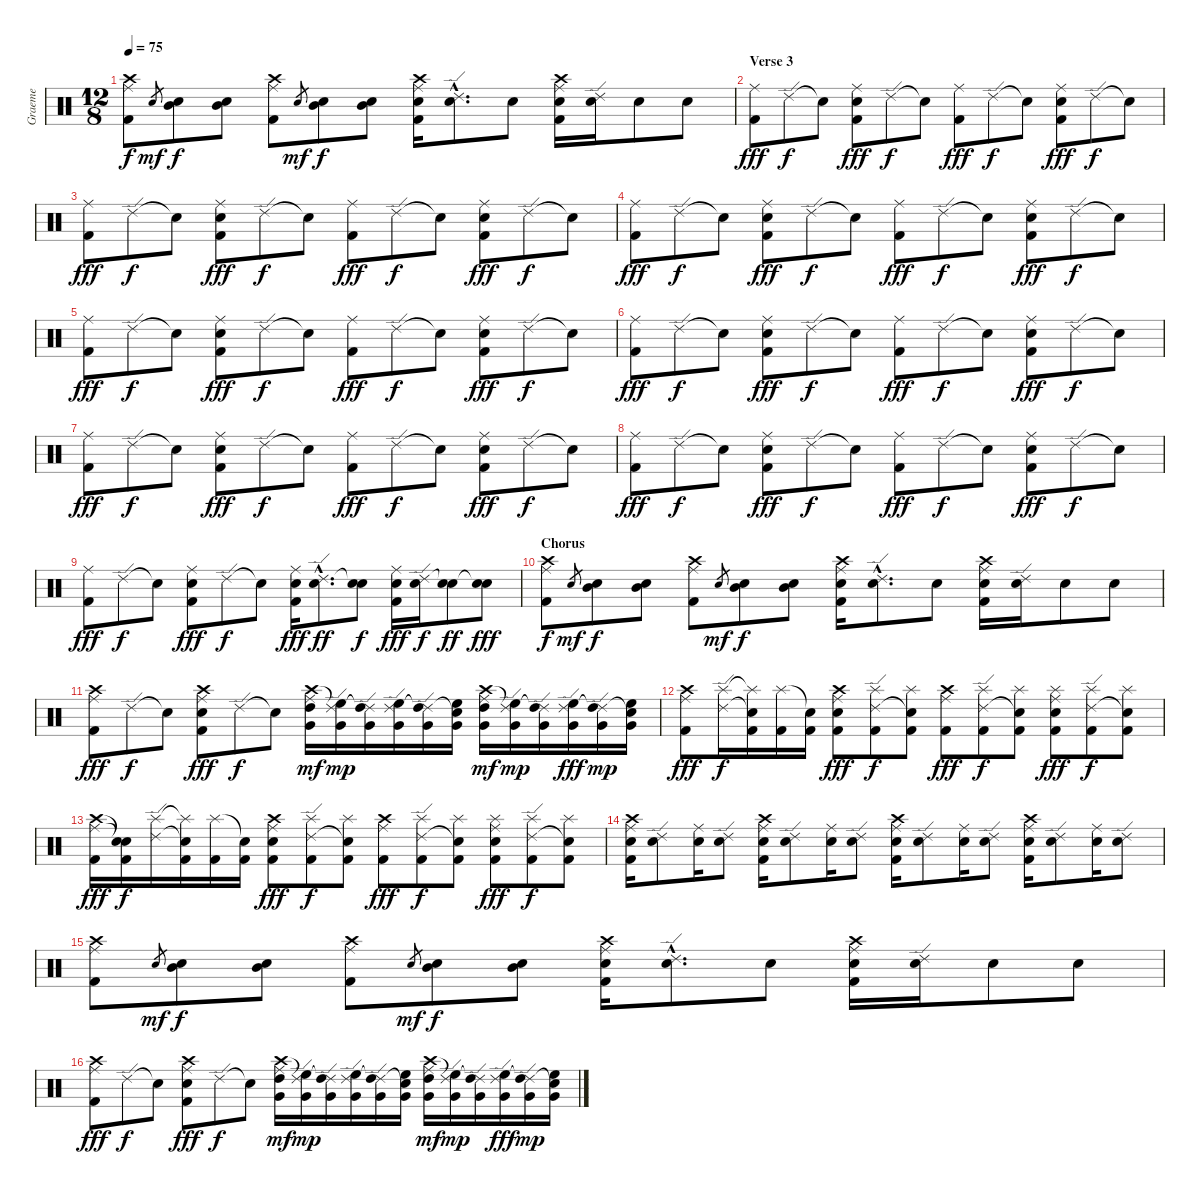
\track ("Graeme" "Graeme") {instrument percussion}
\staff {score}
\articulation defaults
\ts (12 8)
\tempo 75
\clef neutral
\ks c
("Crash high (hit)" "Ride (middle)" "Kick (hit) 2").8{dy f} "Electric Snare (hit)".8{gr dy mf} ("Mid Tom (hit)" "Electric Snare (hit)").8{dy f} ("Mid Tom (hit)" "Electric Snare (hit)").8 ("Crash high (hit)" "Ride (middle)" "Kick (hit) 2").8 "Electric Snare (hit)".8{gr dy mf} ("Mid Tom (hit)" "Electric Snare (hit)").8{dy f} ("Mid Tom (hit)" "Electric Snare (hit)").8 ("Crash high (hit)" "Ride (middle)" "Electric Snare (hit)" "Kick (hit) 2").16 ("Ride (edge) 2"{hac} "Electric Snare (hit)"{hac}).8{d} "Electric Snare (hit)".8 ("Crash high (hit)" "Ride (middle)" "Electric Snare (hit)" "Kick (hit) 2").16 ("Ride (edge) 2" "Electric Snare (hit)").16 "Electric Snare (hit)".8 "Electric Snare (hit)".8 |
\section ("" "Verse 3")
("Ride (middle)" "Kick (hit) 2").8{dy fff} "Ride (edge) 2".8{dy f} "Snare (hit)"{t}.8 ("Ride (middle)" "Electric Snare (hit)" "Kick (hit) 2").8{dy fff} "Ride (edge) 2".8{dy f} "Snare (hit)"{t}.8 ("Ride (middle)" "Kick (hit) 2").8{dy fff} "Ride (edge) 2".8{dy f} "Snare (hit)"{t}.8 ("Ride (middle)" "Electric Snare (hit)" "Kick (hit) 2").8{dy fff} "Ride (edge) 2".8{dy f} "Snare (hit)"{t}.8 |
("Ride (middle)" "Kick (hit) 2").8{dy fff} "Ride (edge) 2".8{dy f} "Snare (hit)"{t}.8 ("Ride (middle)" "Electric Snare (hit)" "Kick (hit) 2").8{dy fff} "Ride (edge) 2".8{dy f} "Snare (hit)"{t}.8 ("Ride (middle)" "Kick (hit) 2").8{dy fff} "Ride (edge) 2".8{dy f} "Snare (hit)"{t}.8 ("Ride (middle)" "Electric Snare (hit)" "Kick (hit) 2").8{dy fff} "Ride (edge) 2".8{dy f} "Snare (hit)"{t}.8 |
("Ride (middle)" "Kick (hit) 2").8{dy fff} "Ride (edge) 2".8{dy f} "Snare (hit)"{t}.8 ("Ride (middle)" "Electric Snare (hit)" "Kick (hit) 2").8{dy fff} "Ride (edge) 2".8{dy f} "Snare (hit)"{t}.8 ("Ride (middle)" "Kick (hit) 2").8{dy fff} "Ride (edge) 2".8{dy f} "Snare (hit)"{t}.8 ("Ride (middle)" "Electric Snare (hit)" "Kick (hit) 2").8{dy fff} "Ride (edge) 2".8{dy f} "Snare (hit)"{t}.8 |
("Ride (middle)" "Kick (hit) 2").8{dy fff} "Ride (edge) 2".8{dy f} "Snare (hit)"{t}.8 ("Ride (middle)" "Electric Snare (hit)" "Kick (hit) 2").8{dy fff} "Ride (edge) 2".8{dy f} "Snare (hit)"{t}.8 ("Ride (middle)" "Kick (hit) 2").8{dy fff} "Ride (edge) 2".8{dy f} "Snare (hit)"{t}.8 ("Ride (middle)" "Electric Snare (hit)" "Kick (hit) 2").8{dy fff} "Ride (edge) 2".8{dy f} "Snare (hit)"{t}.8 |
("Ride (middle)" "Kick (hit) 2").8{dy fff} "Ride (edge) 2".8{dy f} "Snare (hit)"{t}.8 ("Ride (middle)" "Electric Snare (hit)" "Kick (hit) 2").8{dy fff} "Ride (edge) 2".8{dy f} "Snare (hit)"{t}.8 ("Ride (middle)" "Kick (hit) 2").8{dy fff} "Ride (edge) 2".8{dy f} "Snare (hit)"{t}.8 ("Ride (middle)" "Electric Snare (hit)" "Kick (hit) 2").8{dy fff} "Ride (edge) 2".8{dy f} "Snare (hit)"{t}.8 |
("Ride (middle)" "Kick (hit) 2").8{dy fff} "Ride (edge) 2".8{dy f} "Snare (hit)"{t}.8 ("Ride (middle)" "Electric Snare (hit)" "Kick (hit) 2").8{dy fff} "Ride (edge) 2".8{dy f} "Snare (hit)"{t}.8 ("Ride (middle)" "Kick (hit) 2").8{dy fff} "Ride (edge) 2".8{dy f} "Snare (hit)"{t}.8 ("Ride (middle)" "Electric Snare (hit)" "Kick (hit) 2").8{dy fff} "Ride (edge) 2".8{dy f} "Snare (hit)"{t}.8 |
("Ride (middle)" "Kick (hit) 2").8{dy fff} "Ride (edge) 2".8{dy f} "Snare (hit)"{t}.8 ("Ride (middle)" "Electric Snare (hit)" "Kick (hit) 2").8{dy fff} "Ride (edge) 2".8{dy f} "Snare (hit)"{t}.8 ("Ride (middle)" "Kick (hit) 2").8{dy fff} "Ride (edge) 2".8{dy f} "Snare (hit)"{t}.8 ("Ride (middle)" "Electric Snare (hit)" "Kick (hit) 2").8{dy fff} "Ride (edge) 2".8{dy f} "Snare (hit)"{t}.8 |
("Ride (middle)" "Kick (hit) 2").8{dy fff} "Ride (edge) 2".8{dy f} "Snare (hit)"{t}.8 ("Ride (middle)" "Electric Snare (hit)" "Kick (hit) 2").8{dy fff} "Ride (edge) 2".8{dy f} "Snare (hit)"{t}.8 ("Ride (middle)" "Electric Snare (hit)" "Kick (hit) 2").16{dy fff} ("Ride (edge) 2"{hac} "Electric Snare (hit)"{hac}).8{d dy ff} ("Snare (hit)"{t} "Electric Snare (hit)").8{dy f} ("Ride (middle)" "Electric Snare (hit)" "Kick (hit) 2").16{dy fff} ("Ride (edge) 2" "Electric Snare (hit)").16{dy f} ("Snare (hit)"{t} "Electric Snare (hit)").8{dy ff} ("Snare (hit)"{t} "Electric Snare (hit)").8{dy fff} |
\section ("" "Chorus")
("Crash high (hit)" "Ride (middle)" "Kick (hit) 2").8{dy f} "Electric Snare (hit)".8{gr dy mf} ("Mid Tom (hit)" "Electric Snare (hit)").8{dy f} ("Mid Tom (hit)" "Electric Snare (hit)").8 ("Crash high (hit)" "Ride (middle)" "Kick (hit) 2").8 "Electric Snare (hit)".8{gr dy mf} ("Mid Tom (hit)" "Electric Snare (hit)").8{dy f} ("Mid Tom (hit)" "Electric Snare (hit)").8 ("Crash high (hit)" "Ride (middle)" "Electric Snare (hit)" "Kick (hit) 2").16 ("Ride (edge) 2"{hac} "Electric Snare (hit)"{hac}).8{d} "Electric Snare (hit)".8 ("Crash high (hit)" "Ride (middle)" "Electric Snare (hit)" "Kick (hit) 2").16 ("Ride (edge) 2" "Electric Snare (hit)").16 "Electric Snare (hit)".8 "Electric Snare (hit)".8 |
("Crash high (hit)" "Ride (middle)" "Kick (hit) 2").8{dy fff} "Ride (edge) 2".8{dy f} "Snare (hit)"{t}.8 ("Crash high (hit)" "Ride (middle)" "Electric Snare (hit)" "Kick (hit) 2").8{dy fff} "Ride (edge) 2".8{dy f} "Snare (hit)"{t}.8 ("Crash high (hit)" "Ride (middle)" "High Tom (hit)" "Very Low Tom (hit)").16{dy mf} ("Ride (edge) 2"{t} "High Floor Tom (hit)" "Very Low Tom (hit)").16{dy mp} ("Ride (edge) 2"{t} "High Tom (hit)" "Very Low Tom (hit)").16 ("Ride (edge) 2" "High Floor Tom (hit)" "Very Low Tom (hit)").16 ("Ride (edge) 2"{t} "High Tom (hit)" "Very Low Tom (hit)").16 ("Snare (hit)"{t} "High Floor Tom (hit)" "Very Low Tom (hit)").16 ("Crash high (hit)" "Ride (middle)" "High Tom (hit)" "Very Low Tom (hit)").16{dy mf} ("Ride (edge) 2"{t} "High Floor Tom (hit)" "Very Low Tom (hit)").16{dy mp} ("Ride (edge) 2"{t} "High Tom (hit)" "Very Low Tom (hit)").16 ("Ride (edge) 2" "High Floor Tom (hit)" "Very Low Tom (hit)").16{dy fff} ("Ride (edge) 2"{t} "High Tom (hit)" "Very Low Tom (hit)").16{dy mp} ("Snare (hit)"{t} "High Floor Tom (hit)" "Very Low Tom (hit)").16 |
("Crash high (hit)" "Ride (middle)" "Kick (hit) 2").8{dy fff} ("Splash (hit)" "Ride (edge) 2").16{dy f} ("Splash (hit)"{t} "Snare (hit)"{t} "Kick (hit) 2").16 ("Splash (hit)" "Kick (hit) 2").16 ("Snare (hit)"{t} "Kick (hit) 2").16 ("Crash high (hit)" "Ride (middle)" "Electric Snare (hit)" "Kick (hit) 2").8{dy fff} ("Splash (hit)" "Ride (edge) 2" "Kick (hit) 2").8{dy f} ("Splash (hit)" "Snare (hit)"{t} "Kick (hit) 2").8 ("Crash high (hit)" "Ride (middle)" "Kick (hit) 2").8{dy fff} ("Splash (hit)" "Ride (edge) 2" "Kick (hit) 2").8{dy f} ("Splash (hit)" "Snare (hit)"{t} "Kick (hit) 2").8 ("Splash (hit)" "Ride (middle)" "Electric Snare (hit)" "Kick (hit) 2").8{dy fff} ("Splash (hit)" "Ride (edge) 2" "Kick (hit) 2").8{dy f} ("Splash (hit)" "Snare (hit)"{t} "Kick (hit) 2").8 |
("Crash high (hit)" "Ride (middle)" "Kick (hit) 2").16{dy fff} ("Snare (hit)"{t} "Snare (hit)"{t} "Kick (hit) 2").16{dy f} ("Splash (hit)" "Ride (edge) 2").16 ("Splash (hit)"{t} "Snare (hit)"{t} "Kick (hit) 2").16 ("Splash (hit)" "Kick (hit) 2").16 ("Snare (hit)"{t} "Kick (hit) 2").16 ("Crash high (hit)" "Ride (middle)" "Electric Snare (hit)" "Kick (hit) 2").8{dy fff} ("Splash (hit)" "Ride (edge) 2" "Kick (hit) 2").8{dy f} ("Splash (hit)" "Snare (hit)"{t} "Kick (hit) 2").8 ("Crash high (hit)" "Ride (middle)" "Kick (hit) 2").8{dy fff} ("Splash (hit)" "Ride (edge) 2" "Kick (hit) 2").8{dy f} ("Splash (hit)" "Snare (hit)"{t} "Kick (hit) 2").8 ("Splash (hit)" "Ride (middle)" "Electric Snare (hit)" "Kick (hit) 2").8{dy fff} ("Splash (hit)" "Ride (edge) 2" "Kick (hit) 2").8{dy f} ("Splash (hit)" "Snare (hit)"{t} "Kick (hit) 2").8 |
("Crash high (hit)" "Ride (middle)" "Electric Snare (hit)" "Kick (hit) 2").16 ("Ride (edge) 2" "Electric Snare (hit)").8 ("Ride (middle)" "Electric Snare (hit)").16 ("Ride (edge) 2" "Electric Snare (hit)").8 ("Crash high (hit)" "Ride (middle)" "Electric Snare (hit)" "Kick (hit) 2").16 ("Ride (edge) 2" "Electric Snare (hit)").8 ("Ride (middle)" "Electric Snare (hit)").16 ("Ride (edge) 2" "Electric Snare (hit)").8 ("Crash high (hit)" "Ride (middle)" "Electric Snare (hit)" "Kick (hit) 2").16 ("Ride (edge) 2" "Electric Snare (hit)").8 ("Ride (middle)" "Electric Snare (hit)").16 ("Ride (edge) 2" "Electric Snare (hit)").8 ("Crash high (hit)" "Ride (middle)" "Electric Snare (hit)" "Kick (hit) 2").16 ("Ride (edge) 2" "Electric Snare (hit)").8 ("Ride (middle)" "Electric Snare (hit)").16 ("Ride (edge) 2" "Electric Snare (hit)").8 |
("Crash high (hit)" "Ride (middle)" "Kick (hit) 2").8 "Electric Snare (hit)".8{gr dy mf} ("Mid Tom (hit)" "Electric Snare (hit)").8{dy f} ("Mid Tom (hit)" "Electric Snare (hit)").8 ("Crash high (hit)" "Ride (middle)" "Kick (hit) 2").8 "Electric Snare (hit)".8{gr dy mf} ("Mid Tom (hit)" "Electric Snare (hit)").8{dy f} ("Mid Tom (hit)" "Electric Snare (hit)").8 ("Crash high (hit)" "Ride (middle)" "Electric Snare (hit)" "Kick (hit) 2").16 ("Ride (edge) 2"{hac} "Electric Snare (hit)"{hac}).8{d} "Electric Snare (hit)".8 ("Crash high (hit)" "Ride (middle)" "Electric Snare (hit)" "Kick (hit) 2").16 ("Ride (edge) 2" "Electric Snare (hit)").16 "Electric Snare (hit)".8 "Electric Snare (hit)".8 |
("Crash high (hit)" "Ride (middle)" "Kick (hit) 2").8{dy fff} "Ride (edge) 2".8{dy f} "Snare (hit)"{t}.8 ("Crash high (hit)" "Ride (middle)" "Electric Snare (hit)" "Kick (hit) 2").8{dy fff} "Ride (edge) 2".8{dy f} "Snare (hit)"{t}.8 ("Crash high (hit)" "Ride (middle)" "High Tom (hit)" "Very Low Tom (hit)").16{dy mf} ("Ride (edge) 2"{t} "High Floor Tom (hit)" "Very Low Tom (hit)").16{dy mp} ("Ride (edge) 2"{t} "High Tom (hit)" "Very Low Tom (hit)").16 ("Ride (edge) 2" "High Floor Tom (hit)" "Very Low Tom (hit)").16 ("Ride (edge) 2"{t} "High Tom (hit)" "Very Low Tom (hit)").16 ("Snare (hit)"{t} "High Floor Tom (hit)" "Very Low Tom (hit)").16 ("Crash high (hit)" "Ride (middle)" "High Tom (hit)" "Very Low Tom (hit)").16{dy mf} ("Ride (edge) 2"{t} "High Floor Tom (hit)" "Very Low Tom (hit)").16{dy mp} ("Ride (edge) 2"{t} "High Tom (hit)" "Very Low Tom (hit)").16 ("Ride (edge) 2" "High Floor Tom (hit)" "Very Low Tom (hit)").16{dy fff} ("Ride (edge) 2"{t} "High Tom (hit)" "Very Low Tom (hit)").16{dy mp} ("Snare (hit)"{t} "High Floor Tom (hit)" "Very Low Tom (hit)").16
